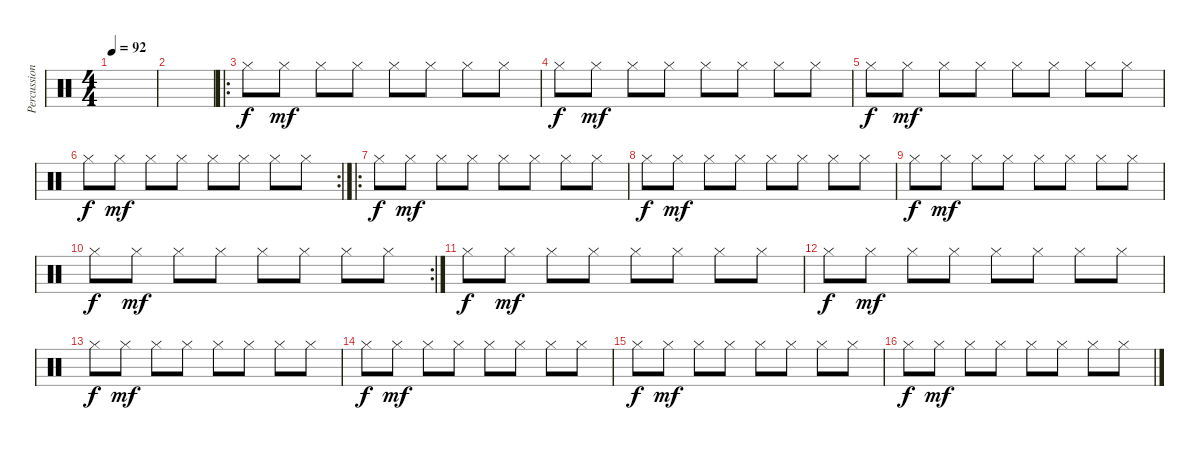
\track ("Percussion" "Percussion") {instrument percussion}
\staff {score}
\articulation defaults
\ts (4 4)
\tempo 92
\clef neutral
\ks c
|
|
\ro "Hi-Hat (closed)".8{dy f} "Hi-Hat (closed)".8{dy mf} "Hi-Hat (closed)".8 "Hi-Hat (closed)".8 "Hi-Hat (closed)".8 "Hi-Hat (closed)".8 "Hi-Hat (closed)".8 "Hi-Hat (closed)".8
|
"Hi-Hat (closed)".8{dy f} "Hi-Hat (closed)".8{dy mf} "Hi-Hat (closed)".8 "Hi-Hat (closed)".8 "Hi-Hat (closed)".8 "Hi-Hat (closed)".8 "Hi-Hat (closed)".8 "Hi-Hat (closed)".8 |
"Hi-Hat (closed)".8{dy f} "Hi-Hat (closed)".8{dy mf} "Hi-Hat (closed)".8 "Hi-Hat (closed)".8 "Hi-Hat (closed)".8 "Hi-Hat (closed)".8 "Hi-Hat (closed)".8 "Hi-Hat (closed)".8 |
\rc 2 "Hi-Hat (closed)".8{dy f} "Hi-Hat (closed)".8{dy mf} "Hi-Hat (closed)".8 "Hi-Hat (closed)".8 "Hi-Hat (closed)".8 "Hi-Hat (closed)".8 "Hi-Hat (closed)".8 "Hi-Hat (closed)".8
|
\ro "Hi-Hat (closed)".8{dy f} "Hi-Hat (closed)".8{dy mf} "Hi-Hat (closed)".8 "Hi-Hat (closed)".8 "Hi-Hat (closed)".8 "Hi-Hat (closed)".8 "Hi-Hat (closed)".8 "Hi-Hat (closed)".8
|
"Hi-Hat (closed)".8{dy f} "Hi-Hat (closed)".8{dy mf} "Hi-Hat (closed)".8 "Hi-Hat (closed)".8 "Hi-Hat (closed)".8 "Hi-Hat (closed)".8 "Hi-Hat (closed)".8 "Hi-Hat (closed)".8 |
"Hi-Hat (closed)".8{dy f} "Hi-Hat (closed)".8{dy mf} "Hi-Hat (closed)".8 "Hi-Hat (closed)".8 "Hi-Hat (closed)".8 "Hi-Hat (closed)".8 "Hi-Hat (closed)".8 "Hi-Hat (closed)".8 |
\rc 2 "Hi-Hat (closed)".8{dy f} "Hi-Hat (closed)".8{dy mf} "Hi-Hat (closed)".8 "Hi-Hat (closed)".8 "Hi-Hat (closed)".8 "Hi-Hat (closed)".8 "Hi-Hat (closed)".8 "Hi-Hat (closed)".8
|
"Hi-Hat (closed)".8{dy f} "Hi-Hat (closed)".8{dy mf} "Hi-Hat (closed)".8 "Hi-Hat (closed)".8 "Hi-Hat (closed)".8 "Hi-Hat (closed)".8 "Hi-Hat (closed)".8 "Hi-Hat (closed)".8 |
"Hi-Hat (closed)".8{dy f} "Hi-Hat (closed)".8{dy mf} "Hi-Hat (closed)".8 "Hi-Hat (closed)".8 "Hi-Hat (closed)".8 "Hi-Hat (closed)".8 "Hi-Hat (closed)".8 "Hi-Hat (closed)".8 |
"Hi-Hat (closed)".8{dy f} "Hi-Hat (closed)".8{dy mf} "Hi-Hat (closed)".8 "Hi-Hat (closed)".8 "Hi-Hat (closed)".8 "Hi-Hat (closed)".8 "Hi-Hat (closed)".8 "Hi-Hat (closed)".8 |
"Hi-Hat (closed)".8{dy f} "Hi-Hat (closed)".8{dy mf} "Hi-Hat (closed)".8 "Hi-Hat (closed)".8 "Hi-Hat (closed)".8 "Hi-Hat (closed)".8 "Hi-Hat (closed)".8 "Hi-Hat (closed)".8 |
"Hi-Hat (closed)".8{dy f} "Hi-Hat (closed)".8{dy mf} "Hi-Hat (closed)".8 "Hi-Hat (closed)".8 "Hi-Hat (closed)".8 "Hi-Hat (closed)".8 "Hi-Hat (closed)".8 "Hi-Hat (closed)".8 |
"Hi-Hat (closed)".8{dy f} "Hi-Hat (closed)".8{dy mf} "Hi-Hat (closed)".8 "Hi-Hat (closed)".8 "Hi-Hat (closed)".8 "Hi-Hat (closed)".8 "Hi-Hat (closed)".8 "Hi-Hat (closed)".8
